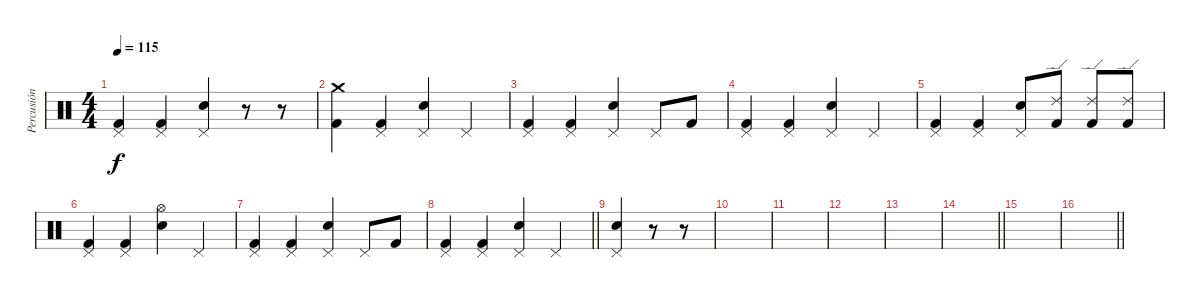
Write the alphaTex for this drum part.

\track ("Percusión" "Percusión") {instrument percussion}
\staff {score}
\articulation defaults
\ts (4 4)
\tempo 115
\clef neutral
\ks c
("Kick (hit) 2" "Pedal Hi-Hat (hit)").4{dy f} ("Kick (hit) 2" "Pedal Hi-Hat (hit)").4 ("Electric Snare (hit)" "Pedal Hi-Hat (hit)").4 r.8 r.8 |
("Kick (hit) 2" "Crash medium (hit)").4 ("Kick (hit) 2" "Pedal Hi-Hat (hit)").4 ("Electric Snare (hit)" "Pedal Hi-Hat (hit)").4 "Pedal Hi-Hat (hit)".4 |
("Kick (hit) 2" "Pedal Hi-Hat (hit)").4 ("Kick (hit) 2" "Pedal Hi-Hat (hit)").4 ("Electric Snare (hit)" "Pedal Hi-Hat (hit)").4 "Pedal Hi-Hat (hit)".8 "Kick (hit) 2".8 |
("Kick (hit) 2" "Pedal Hi-Hat (hit)").4 ("Kick (hit) 2" "Pedal Hi-Hat (hit)").4 ("Electric Snare (hit)" "Pedal Hi-Hat (hit)").4 "Pedal Hi-Hat (hit)".4 |
("Kick (hit) 2" "Pedal Hi-Hat (hit)").4 ("Kick (hit) 2" "Pedal Hi-Hat (hit)").4 ("Electric Snare (hit)" "Pedal Hi-Hat (hit)").8 ("Ride (edge) 2" "Kick (hit) 2").8 ("Ride (edge) 2" "Kick (hit) 2").8 ("Kick (hit) 2" "Ride (edge) 2").8 |
("Kick (hit) 2" "Pedal Hi-Hat (hit)").4 ("Kick (hit) 2" "Pedal Hi-Hat (hit)").4 ("Electric Snare (hit)" "Hi-Hat (open)").4 "Pedal Hi-Hat (hit)".4 |
("Kick (hit) 2" "Pedal Hi-Hat (hit)").4 ("Kick (hit) 2" "Pedal Hi-Hat (hit)").4 ("Electric Snare (hit)" "Pedal Hi-Hat (hit)").4 "Pedal Hi-Hat (hit)".8 "Kick (hit) 2".8 |
\barLineRight lightlight
("Kick (hit) 2" "Pedal Hi-Hat (hit)").4 ("Kick (hit) 2" "Pedal Hi-Hat (hit)").4 ("Electric Snare (hit)" "Pedal Hi-Hat (hit)").4 "Pedal Hi-Hat (hit)".4 |
("Electric Snare (hit)" "Pedal Hi-Hat (hit)").4 r.8 r.8 |
|
|
|
|
\barLineRight lightlight
|
|
\barLineRight lightlight
